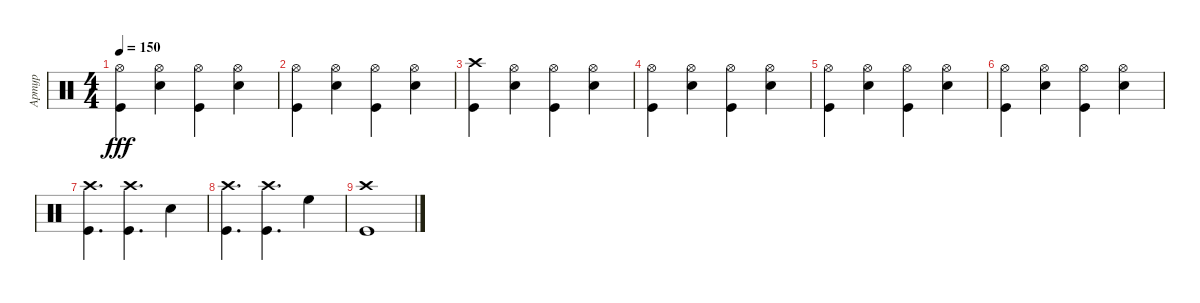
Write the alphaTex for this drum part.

\track ("Артур" "Артур") {instrument percussion}
\staff {score}
\articulation defaults
\ts (4 4)
\tempo 150
\clef neutral
\ks c
("Kick (hit)" "Hi-Hat (open)").4{dy fff} ("Hi-Hat (open)" "Electric Snare (hit)").4 ("Hi-Hat (open)" "Kick (hit)").4 ("Hi-Hat (open)" "Electric Snare (hit)").4 |
("Kick (hit)" "Hi-Hat (open)").4 ("Hi-Hat (open)" "Electric Snare (hit)").4 ("Hi-Hat (open)" "Kick (hit)").4 ("Hi-Hat (open)" "Electric Snare (hit)").4 |
("Kick (hit)" "Crash high (hit)").4 ("Hi-Hat (open)" "Electric Snare (hit)").4 ("Hi-Hat (open)" "Kick (hit)").4 ("Hi-Hat (open)" "Electric Snare (hit)").4 |
("Kick (hit)" "Hi-Hat (open)").4 ("Hi-Hat (open)" "Electric Snare (hit)").4 ("Hi-Hat (open)" "Kick (hit)").4 ("Hi-Hat (open)" "Electric Snare (hit)").4 |
("Kick (hit)" "Hi-Hat (open)").4 ("Hi-Hat (open)" "Electric Snare (hit)").4 ("Hi-Hat (open)" "Kick (hit)").4 ("Hi-Hat (open)" "Electric Snare (hit)").4 |
("Kick (hit)" "Hi-Hat (open)").4 ("Hi-Hat (open)" "Electric Snare (hit)").4 ("Hi-Hat (open)" "Kick (hit)").4 ("Hi-Hat (open)" "Electric Snare (hit)").4 |
("Crash high (hit)" "Kick (hit)").4{d} ("Crash high (hit)" "Kick (hit)").4{d} "Electric Snare (hit)".4 |
("Crash high (hit)" "Kick (hit)").4{d} ("Crash high (hit)" "Kick (hit)").4{d} "High Floor Tom (hit)".4 |
("Crash high (hit)" "Kick (hit)").1
